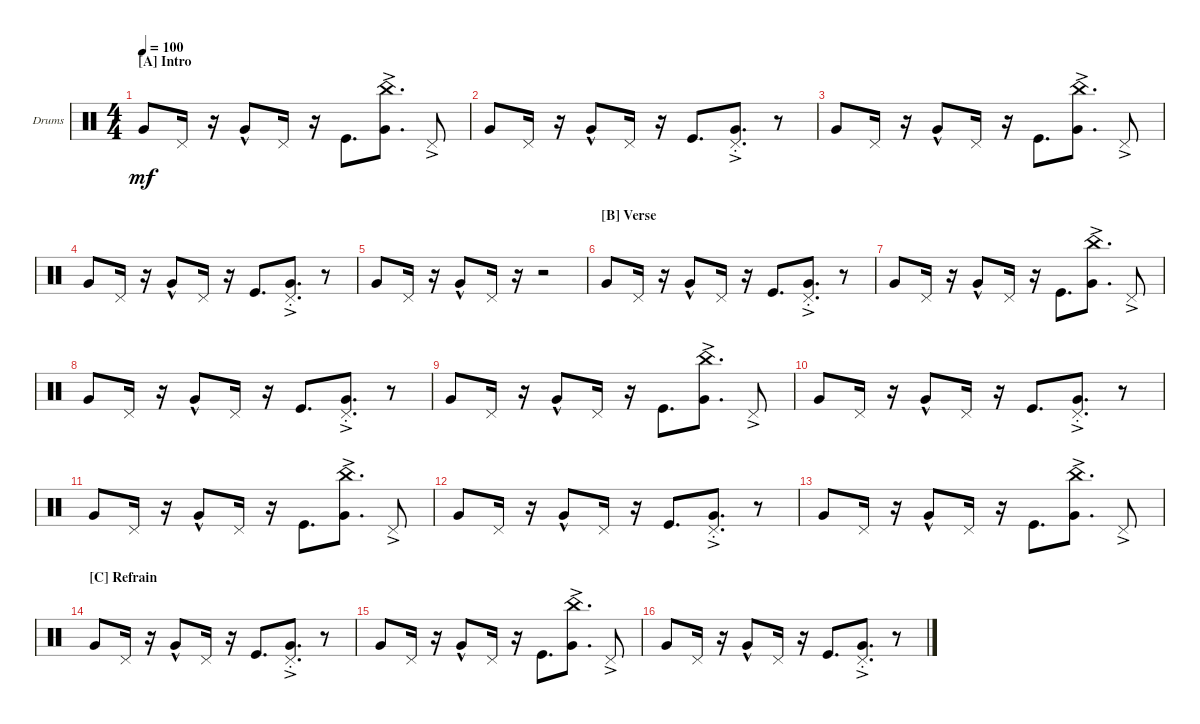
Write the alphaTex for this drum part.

\defaultSystemsLayout 4
\bracketExtendMode groupsimilarinstruments
\firstSystemTrackNameOrientation horizontal
\otherSystemsTrackNameOrientation horizontal
\track ("Drumkit" "Drums") {instrument percussion}
\staff {score}
\articulation defaults
\ts (4 4)
\section ("A" "Intro")
\tempo 100
\clef neutral
\scale
0.474178
\ks c "Very Low Tom (hit)".8{dy mf} "Pedal Hi-Hat (hit)".16
r.16 "Very Low Tom (hit)"{hac}.8 "Pedal Hi-Hat (hit)".16 r.16 "Kick (hit)".8{d} ("China (hit)"{ac} "Very Low Tom (hit)"{ac}).8{d} "Pedal Hi-Hat (hit)"{ac}.8 |
\scale
0.262911 "Very Low Tom (hit)".8 "Pedal Hi-Hat (hit)".16 r.16 "Very Low Tom (hit)"{hac}.8 "Pedal Hi-Hat (hit)".16 r.16 "Kick (hit)".8{d} ("Very Low Tom (hit)"{ac st} "Pedal Hi-Hat (hit)"{ac st}).8{d} r.8 |
\scale
0.262911 "Very Low Tom (hit)".8 "Pedal Hi-Hat (hit)".16 r.16 "Very Low Tom (hit)"{hac}.8 "Pedal Hi-Hat (hit)".16 r.16 "Kick (hit)".8{d} ("China (hit)"{ac} "Very Low Tom (hit)"{ac}).8{d} "Pedal Hi-Hat (hit)"{ac}.8 |
\scale
0.333333 "Very Low Tom (hit)".8 "Pedal Hi-Hat (hit)".16 r.16 "Very Low Tom (hit)"{hac}.8 "Pedal Hi-Hat (hit)".16 r.16 "Kick (hit)".8{d} ("Very Low Tom (hit)"{ac st} "Pedal Hi-Hat (hit)"{ac st}).8{d} r.8 |
\scale
0.333333 "Very Low Tom (hit)".8 "Pedal Hi-Hat (hit)".16 r.16 "Very Low Tom (hit)"{hac}.8 "Pedal Hi-Hat (hit)".16 r.16 r.2 |
\section ("B" "Verse")
\scale
0.333333 "Very Low Tom (hit)".8 "Pedal Hi-Hat (hit)".16 r.16 "Very Low Tom (hit)"{hac}.8 "Pedal Hi-Hat (hit)".16 r.16 "Kick (hit)".8{d} ("Very Low Tom (hit)"{ac st} "Pedal Hi-Hat (hit)"{ac st}).8{d} r.8 |
\scale
0.333333 "Very Low Tom (hit)".8 "Pedal Hi-Hat (hit)".16 r.16 "Very Low Tom (hit)"{hac}.8 "Pedal Hi-Hat (hit)".16 r.16 "Kick (hit)".8{d} ("China (hit)"{ac} "Very Low Tom (hit)"{ac}).8{d} "Pedal Hi-Hat (hit)"{ac}.8 |
\scale
0.333333 "Very Low Tom (hit)".8 "Pedal Hi-Hat (hit)".16 r.16 "Very Low Tom (hit)"{hac}.8 "Pedal Hi-Hat (hit)".16 r.16 "Kick (hit)".8{d} ("Very Low Tom (hit)"{ac st} "Pedal Hi-Hat (hit)"{ac st}).8{d} r.8 |
"Very Low Tom (hit)".8 "Pedal Hi-Hat (hit)".16 r.16 "Very Low Tom (hit)"{hac}.8 "Pedal Hi-Hat (hit)".16 r.16 "Kick (hit)".8{d} ("China (hit)"{ac} "Very Low Tom (hit)"{ac}).8{d} "Pedal Hi-Hat (hit)"{ac}.8 |
\scale
0.333333 "Very Low Tom (hit)".8 "Pedal Hi-Hat (hit)".16 r.16 "Very Low Tom (hit)"{hac}.8 "Pedal Hi-Hat (hit)".16 r.16 "Kick (hit)".8{d} ("Very Low Tom (hit)"{ac st} "Pedal Hi-Hat (hit)"{ac st}).8{d} r.8 |
"Very Low Tom (hit)".8 "Pedal Hi-Hat (hit)".16 r.16 "Very Low Tom (hit)"{hac}.8 "Pedal Hi-Hat (hit)".16 r.16 "Kick (hit)".8{d} ("China (hit)"{ac} "Very Low Tom (hit)"{ac}).8{d} "Pedal Hi-Hat (hit)"{ac}.8 |
"Very Low Tom (hit)".8 "Pedal Hi-Hat (hit)".16 r.16 "Very Low Tom (hit)"{hac}.8 "Pedal Hi-Hat (hit)".16 r.16 "Kick (hit)".8{d} ("Very Low Tom (hit)"{ac st} "Pedal Hi-Hat (hit)"{ac st}).8{d} r.8 |
"Very Low Tom (hit)".8 "Pedal Hi-Hat (hit)".16 r.16 "Very Low Tom (hit)"{hac}.8 "Pedal Hi-Hat (hit)".16 r.16 "Kick (hit)".8{d} ("China (hit)"{ac} "Very Low Tom (hit)"{ac}).8{d} "Pedal Hi-Hat (hit)"{ac}.8 |
\section ("C" "Refrain")
"Very Low Tom (hit)".8 "Pedal Hi-Hat (hit)".16 r.16 "Very Low Tom (hit)"{hac}.8 "Pedal Hi-Hat (hit)".16 r.16 "Kick (hit)".8{d} ("Very Low Tom (hit)"{ac st} "Pedal Hi-Hat (hit)"{ac st}).8{d} r.8 |
"Very Low Tom (hit)".8 "Pedal Hi-Hat (hit)".16 r.16 "Very Low Tom (hit)"{hac}.8 "Pedal Hi-Hat (hit)".16 r.16 "Kick (hit)".8{d} ("China (hit)"{ac} "Very Low Tom (hit)"{ac}).8{d} "Pedal Hi-Hat (hit)"{ac}.8 |
"Very Low Tom (hit)".8 "Pedal Hi-Hat (hit)".16 r.16 "Very Low Tom (hit)"{hac}.8 "Pedal Hi-Hat (hit)".16 r.16 "Kick (hit)".8{d} ("Very Low Tom (hit)"{ac st} "Pedal Hi-Hat (hit)"{ac st}).8{d} r.8
